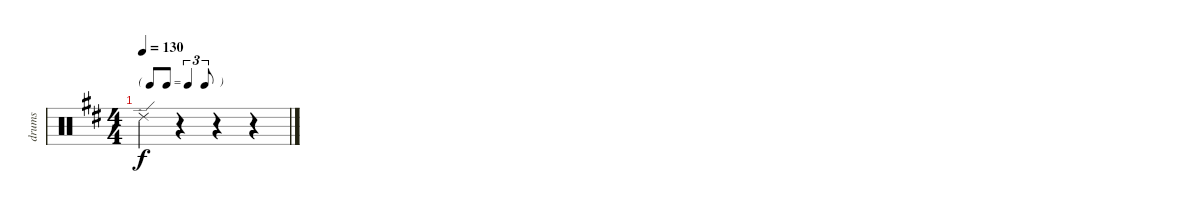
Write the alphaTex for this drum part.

\track ("drums" "drums") {instrument percussion}
\staff {score}
\articulation defaults
\ts (4 4)
\tf triplet8th
\tempo 130
\clef neutral
\ks d "Ride (edge) 2".4{dy f}
r.4 r.4 r.4
